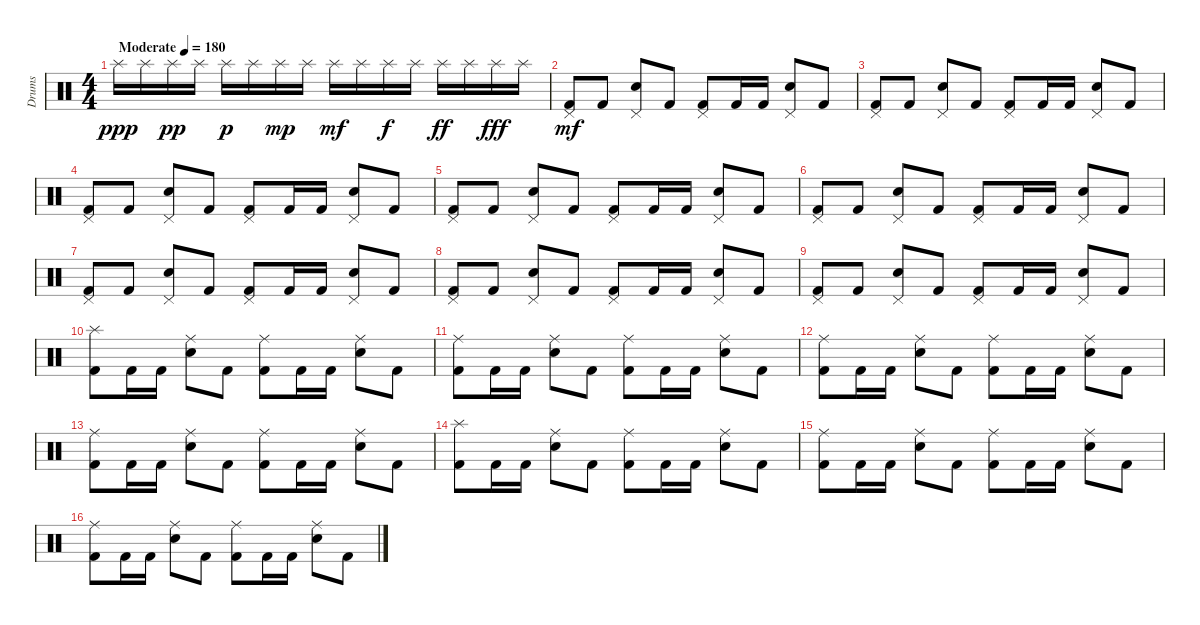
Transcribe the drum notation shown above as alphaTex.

\track ("Drums" "Drums") {instrument percussion}
\staff {score}
\articulation defaults
\ts (4 4)
\tempo (180 "Moderate")
\clef neutral
\ks c "Splash (hit)".16{dy ppp} "Splash (hit)".16 "Splash (hit)".16{dy pp} "Splash (hit)".16 "Splash (hit)".16{dy p} "Splash (hit)".16 "Splash (hit)".16{dy mp} "Splash (hit)".16 "Splash (hit)".16{dy mf} "Splash (hit)".16 "Splash (hit)".16{dy f} "Splash (hit)".16 "Splash (hit)".16{dy ff} "Splash (hit)".16 "Splash (hit)".16{dy fff} "Splash (hit)".16
|
("Pedal Hi-Hat (hit)" "Kick (hit) 2").8{dy mf} "Kick (hit) 2".8 ("Pedal Hi-Hat (hit)" "Snare (hit) 2").8 "Kick (hit) 2".8 ("Pedal Hi-Hat (hit)" "Kick (hit) 2").8 "Kick (hit) 2".16 "Kick (hit) 2".16 ("Pedal Hi-Hat (hit)" "Snare (hit) 2").8 "Kick (hit) 2".8 |
("Pedal Hi-Hat (hit)" "Kick (hit) 2").8 "Kick (hit) 2".8 ("Pedal Hi-Hat (hit)" "Snare (hit) 2").8 "Kick (hit) 2".8 ("Pedal Hi-Hat (hit)" "Kick (hit) 2").8 "Kick (hit) 2".16 "Kick (hit) 2".16 ("Pedal Hi-Hat (hit)" "Snare (hit) 2").8 "Kick (hit) 2".8 |
("Pedal Hi-Hat (hit)" "Kick (hit) 2").8 "Kick (hit) 2".8 ("Pedal Hi-Hat (hit)" "Snare (hit) 2").8 "Kick (hit) 2".8 ("Pedal Hi-Hat (hit)" "Kick (hit) 2").8 "Kick (hit) 2".16 "Kick (hit) 2".16 ("Pedal Hi-Hat (hit)" "Snare (hit) 2").8 "Kick (hit) 2".8 |
("Pedal Hi-Hat (hit)" "Kick (hit) 2").8 "Kick (hit) 2".8 ("Pedal Hi-Hat (hit)" "Snare (hit) 2").8 "Kick (hit) 2".8 ("Pedal Hi-Hat (hit)" "Kick (hit) 2").8 "Kick (hit) 2".16 "Kick (hit) 2".16 ("Pedal Hi-Hat (hit)" "Snare (hit) 2").8 "Kick (hit) 2".8 |
("Pedal Hi-Hat (hit)" "Kick (hit) 2").8 "Kick (hit) 2".8 ("Pedal Hi-Hat (hit)" "Snare (hit) 2").8 "Kick (hit) 2".8 ("Pedal Hi-Hat (hit)" "Kick (hit) 2").8 "Kick (hit) 2".16 "Kick (hit) 2".16 ("Pedal Hi-Hat (hit)" "Snare (hit) 2").8 "Kick (hit) 2".8 |
("Pedal Hi-Hat (hit)" "Kick (hit) 2").8 "Kick (hit) 2".8 ("Pedal Hi-Hat (hit)" "Snare (hit) 2").8 "Kick (hit) 2".8 ("Pedal Hi-Hat (hit)" "Kick (hit) 2").8 "Kick (hit) 2".16 "Kick (hit) 2".16 ("Pedal Hi-Hat (hit)" "Snare (hit) 2").8 "Kick (hit) 2".8 |
("Pedal Hi-Hat (hit)" "Kick (hit) 2").8 "Kick (hit) 2".8 ("Pedal Hi-Hat (hit)" "Snare (hit) 2").8 "Kick (hit) 2".8 ("Pedal Hi-Hat (hit)" "Kick (hit) 2").8 "Kick (hit) 2".16 "Kick (hit) 2".16 ("Pedal Hi-Hat (hit)" "Snare (hit) 2").8 "Kick (hit) 2".8 |
("Pedal Hi-Hat (hit)" "Kick (hit) 2").8 "Kick (hit) 2".8 ("Pedal Hi-Hat (hit)" "Snare (hit) 2").8 "Kick (hit) 2".8 ("Pedal Hi-Hat (hit)" "Kick (hit) 2").8 "Kick (hit) 2".16 "Kick (hit) 2".16 ("Pedal Hi-Hat (hit)" "Snare (hit) 2").8 "Kick (hit) 2".8 |
("Splash (hit)" "Kick (hit) 2").8 "Kick (hit) 2".16 "Kick (hit) 2".16 ("Ride (middle)" "Snare (hit) 2").8 "Kick (hit) 2".8 ("Ride (middle)" "Kick (hit) 2").8 "Kick (hit) 2".16 "Kick (hit) 2".16 ("Ride (middle)" "Snare (hit) 2").8 "Kick (hit) 2".8 |
("Ride (middle)" "Kick (hit) 2").8 "Kick (hit) 2".16 "Kick (hit) 2".16 ("Ride (middle)" "Snare (hit) 2").8 "Kick (hit) 2".8 ("Ride (middle)" "Kick (hit) 2").8 "Kick (hit) 2".16 "Kick (hit) 2".16 ("Ride (middle)" "Snare (hit) 2").8 "Kick (hit) 2".8 |
("Ride (middle)" "Kick (hit) 2").8 "Kick (hit) 2".16 "Kick (hit) 2".16 ("Ride (middle)" "Snare (hit) 2").8 "Kick (hit) 2".8 ("Ride (middle)" "Kick (hit) 2").8 "Kick (hit) 2".16 "Kick (hit) 2".16 ("Ride (middle)" "Snare (hit) 2").8 "Kick (hit) 2".8 |
("Ride (middle)" "Kick (hit) 2").8 "Kick (hit) 2".16 "Kick (hit) 2".16 ("Ride (middle)" "Snare (hit) 2").8 "Kick (hit) 2".8 ("Ride (middle)" "Kick (hit) 2").8 "Kick (hit) 2".16 "Kick (hit) 2".16 ("Ride (middle)" "Snare (hit) 2").8 "Kick (hit) 2".8 |
("Splash (hit)" "Kick (hit) 2").8 "Kick (hit) 2".16 "Kick (hit) 2".16 ("Ride (middle)" "Snare (hit) 2").8 "Kick (hit) 2".8 ("Ride (middle)" "Kick (hit) 2").8 "Kick (hit) 2".16 "Kick (hit) 2".16 ("Ride (middle)" "Snare (hit) 2").8 "Kick (hit) 2".8 |
("Ride (middle)" "Kick (hit) 2").8 "Kick (hit) 2".16 "Kick (hit) 2".16 ("Ride (middle)" "Snare (hit) 2").8 "Kick (hit) 2".8 ("Ride (middle)" "Kick (hit) 2").8 "Kick (hit) 2".16 "Kick (hit) 2".16 ("Ride (middle)" "Snare (hit) 2").8 "Kick (hit) 2".8 |
("Ride (middle)" "Kick (hit) 2").8 "Kick (hit) 2".16 "Kick (hit) 2".16 ("Ride (middle)" "Snare (hit) 2").8 "Kick (hit) 2".8 ("Ride (middle)" "Kick (hit) 2").8 "Kick (hit) 2".16 "Kick (hit) 2".16 ("Ride (middle)" "Snare (hit) 2").8 "Kick (hit) 2".8
